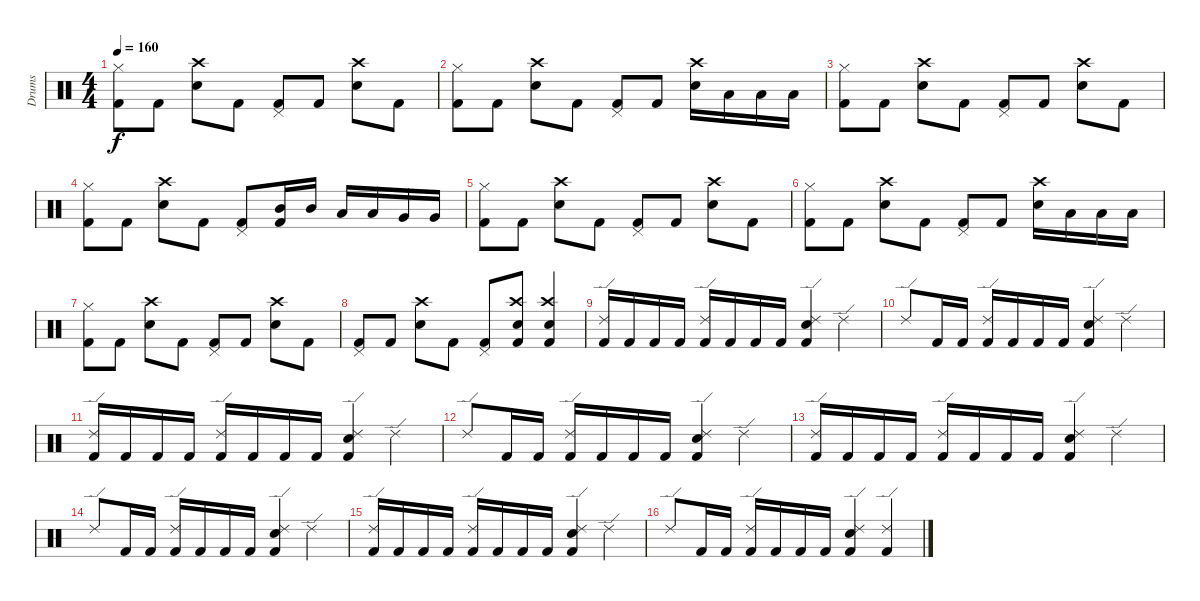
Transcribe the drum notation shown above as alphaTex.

\track ("Drums" "Drums") {instrument percussion}
\staff {score}
\articulation defaults
\ts (4 4)
\tempo 160
\clef neutral
\ks c
("Hi-Hat (closed)" "Kick (hit) 2").8{dy f} "Kick (hit) 2".8 ("Crash high (hit)" "Snare (hit) 2").8 "Kick (hit) 2".8 ("Pedal Hi-Hat (hit)" "Kick (hit) 2").8 "Kick (hit) 2".8 ("Crash high (hit)" "Snare (hit) 2").8 "Kick (hit) 2".8 |
("Hi-Hat (closed)" "Kick (hit) 2").8 "Kick (hit) 2".8 ("Crash high (hit)" "Snare (hit) 2").8 "Kick (hit) 2".8 ("Pedal Hi-Hat (hit)" "Kick (hit) 2").8 "Kick (hit) 2".8 ("Crash high (hit)" "Snare (hit) 2").16 "Low Tom (hit)".16 "Low Tom (hit)".16 "Low Tom (hit)".16 |
("Hi-Hat (closed)" "Kick (hit) 2").8 "Kick (hit) 2".8 ("Crash high (hit)" "Snare (hit) 2").8 "Kick (hit) 2".8 ("Pedal Hi-Hat (hit)" "Kick (hit) 2").8 "Kick (hit) 2".8 ("Crash high (hit)" "Snare (hit) 2").8 "Kick (hit) 2".8 |
("Hi-Hat (closed)" "Kick (hit) 2").8 "Kick (hit) 2".8 ("Crash high (hit)" "Snare (hit) 2").8 "Kick (hit) 2".8 ("Pedal Hi-Hat (hit)" "Kick (hit) 2").8 ("Mid Tom (hit)" "Kick (hit) 2").16 "Mid Tom (hit)".16 "Low Tom (hit)".16 "Low Tom (hit)".16 "Very Low Tom (hit)".16 "Very Low Tom (hit)".16 |
("Hi-Hat (closed)" "Kick (hit) 2").8 "Kick (hit) 2".8 ("Crash high (hit)" "Snare (hit) 2").8 "Kick (hit) 2".8 ("Pedal Hi-Hat (hit)" "Kick (hit) 2").8 "Kick (hit) 2".8 ("Crash high (hit)" "Snare (hit) 2").8 "Kick (hit) 2".8 |
("Hi-Hat (closed)" "Kick (hit) 2").8 "Kick (hit) 2".8 ("Crash high (hit)" "Snare (hit) 2").8 "Kick (hit) 2".8 ("Pedal Hi-Hat (hit)" "Kick (hit) 2").8 "Kick (hit) 2".8 ("Crash high (hit)" "Snare (hit) 2").16 "Low Tom (hit)".16 "Low Tom (hit)".16 "Low Tom (hit)".16 |
("Hi-Hat (closed)" "Kick (hit) 2").8 "Kick (hit) 2".8 ("Crash high (hit)" "Snare (hit) 2").8 "Kick (hit) 2".8 ("Pedal Hi-Hat (hit)" "Kick (hit) 2").8 "Kick (hit) 2".8 ("Crash high (hit)" "Snare (hit) 2").8 "Kick (hit) 2".8 |
("Pedal Hi-Hat (hit)" "Kick (hit) 2").8 "Kick (hit) 2".8 ("Crash high (hit)" "Snare (hit) 2").8 "Kick (hit) 2".8 ("Pedal Hi-Hat (hit)" "Kick (hit) 2").8 ("Crash high (hit)" "Snare (hit) 2" "Kick (hit) 2").8 ("Crash high (hit)" "Snare (hit) 2" "Kick (hit) 2").4 |
("Ride (edge) 2" "Kick (hit) 2").16 "Kick (hit) 2".16 "Kick (hit) 2".16 "Kick (hit) 2".16 ("Ride (edge) 2" "Kick (hit) 2").16 "Kick (hit) 2".16 "Kick (hit) 2".16 "Kick (hit) 2".16 ("Ride (edge) 2" "Snare (hit) 2" "Kick (hit) 2").4 "Ride (edge) 2".4 |
"Ride (edge) 2".8 "Kick (hit) 2".16 "Kick (hit) 2".16 ("Ride (edge) 2" "Kick (hit) 2").16 "Kick (hit) 2".16 "Kick (hit) 2".16 "Kick (hit) 2".16 ("Ride (edge) 2" "Snare (hit) 2" "Kick (hit) 2").4 "Ride (edge) 2".4 |
("Ride (edge) 2" "Kick (hit) 2").16 "Kick (hit) 2".16 "Kick (hit) 2".16 "Kick (hit) 2".16 ("Ride (edge) 2" "Kick (hit) 2").16 "Kick (hit) 2".16 "Kick (hit) 2".16 "Kick (hit) 2".16 ("Ride (edge) 2" "Snare (hit) 2" "Kick (hit) 2").4 "Ride (edge) 2".4 |
"Ride (edge) 2".8 "Kick (hit) 2".16 "Kick (hit) 2".16 ("Ride (edge) 2" "Kick (hit) 2").16 "Kick (hit) 2".16 "Kick (hit) 2".16 "Kick (hit) 2".16 ("Ride (edge) 2" "Snare (hit) 2" "Kick (hit) 2").4 "Ride (edge) 2".4 |
("Ride (edge) 2" "Kick (hit) 2").16 "Kick (hit) 2".16 "Kick (hit) 2".16 "Kick (hit) 2".16 ("Ride (edge) 2" "Kick (hit) 2").16 "Kick (hit) 2".16 "Kick (hit) 2".16 "Kick (hit) 2".16 ("Ride (edge) 2" "Snare (hit) 2" "Kick (hit) 2").4 "Ride (edge) 2".4 |
"Ride (edge) 2".8 "Kick (hit) 2".16 "Kick (hit) 2".16 ("Ride (edge) 2" "Kick (hit) 2").16 "Kick (hit) 2".16 "Kick (hit) 2".16 "Kick (hit) 2".16 ("Ride (edge) 2" "Snare (hit) 2" "Kick (hit) 2").4 "Ride (edge) 2".4 |
("Ride (edge) 2" "Kick (hit) 2").16 "Kick (hit) 2".16 "Kick (hit) 2".16 "Kick (hit) 2".16 ("Ride (edge) 2" "Kick (hit) 2").16 "Kick (hit) 2".16 "Kick (hit) 2".16 "Kick (hit) 2".16 ("Ride (edge) 2" "Snare (hit) 2" "Kick (hit) 2").4 "Ride (edge) 2".4 |
"Ride (edge) 2".8 "Kick (hit) 2".16 "Kick (hit) 2".16 ("Ride (edge) 2" "Kick (hit) 2").16 "Kick (hit) 2".16 "Kick (hit) 2".16 "Kick (hit) 2".16 ("Ride (edge) 2" "Snare (hit) 2" "Kick (hit) 2").4 ("Ride (edge) 2" "Kick (hit) 2").4
